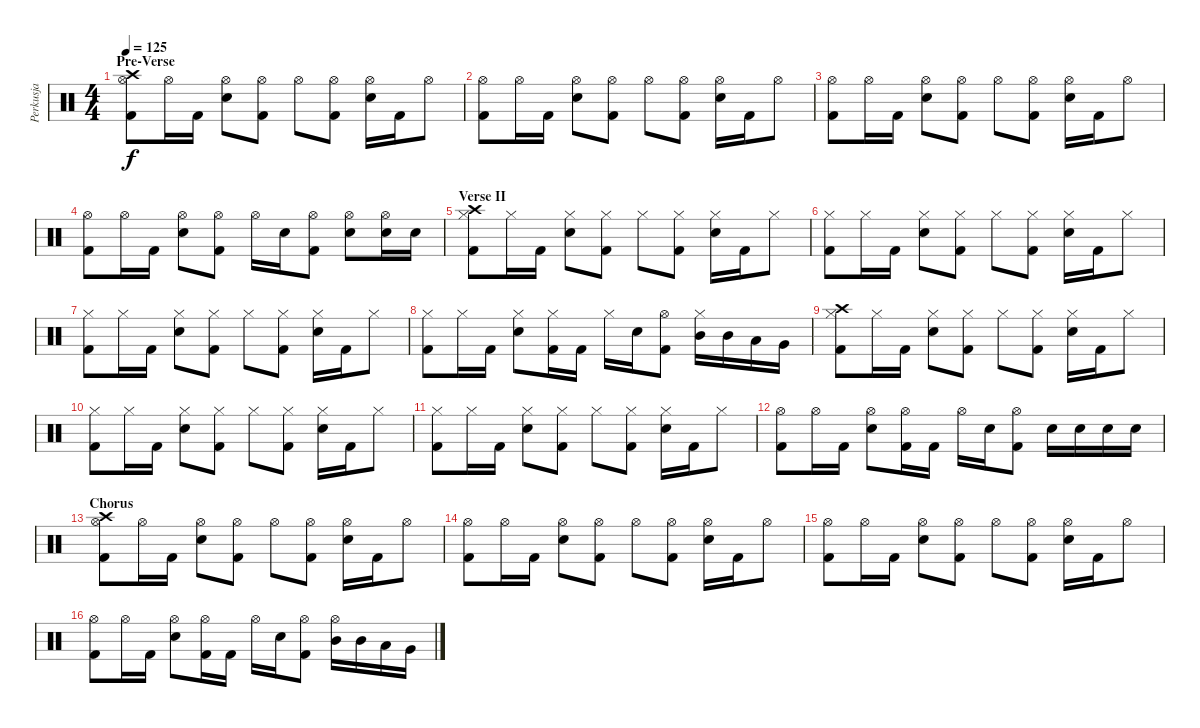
\track ("Perkusja" "Perkusja") {instrument percussion}
\staff {score}
\articulation defaults
\ts (4 4)
\section ("" "Pre-Verse")
\tempo 125
\clef neutral
\ks c
("Hi-Hat (open)" "Kick (hit) 2" "Crash high (hit)").8{dy f} "Hi-Hat (open)".16 "Kick (hit) 2".16 ("Hi-Hat (open)" "Electric Snare (hit)").8 ("Hi-Hat (open)" "Kick (hit) 2").8 "Hi-Hat (open)".8 ("Hi-Hat (open)" "Kick (hit) 2").8 ("Hi-Hat (open)" "Electric Snare (hit)").16 "Kick (hit) 2".16 "Hi-Hat (open)".8 |
("Hi-Hat (open)" "Kick (hit) 2").8 "Hi-Hat (open)".16 "Kick (hit) 2".16 ("Hi-Hat (open)" "Electric Snare (hit)").8 ("Hi-Hat (open)" "Kick (hit) 2").8 "Hi-Hat (open)".8 ("Hi-Hat (open)" "Kick (hit) 2").8 ("Hi-Hat (open)" "Electric Snare (hit)").16 "Kick (hit) 2".16 "Hi-Hat (open)".8 |
("Hi-Hat (open)" "Kick (hit) 2").8 "Hi-Hat (open)".16 "Kick (hit) 2".16 ("Hi-Hat (open)" "Electric Snare (hit)").8 ("Hi-Hat (open)" "Kick (hit) 2").8 "Hi-Hat (open)".8 ("Hi-Hat (open)" "Kick (hit) 2").8 ("Hi-Hat (open)" "Electric Snare (hit)").16 "Kick (hit) 2".16 "Hi-Hat (open)".8 |
("Hi-Hat (open)" "Kick (hit) 2").8 "Hi-Hat (open)".16 "Kick (hit) 2".16 ("Hi-Hat (open)" "Electric Snare (hit)").8 ("Hi-Hat (open)" "Kick (hit) 2").8 "Hi-Hat (open)".16 "Electric Snare (hit)".16 ("Hi-Hat (open)" "Kick (hit) 2").8 ("Hi-Hat (open)" "Electric Snare (hit)").8 ("Hi-Hat (open)" "Electric Snare (hit)").16 "Electric Snare (hit)".16 |
\section ("" "Verse II")
("Hi-Hat (closed)" "Kick (hit) 2" "Crash high (hit)").8 "Hi-Hat (closed)".16 "Kick (hit) 2".16 ("Hi-Hat (closed)" "Electric Snare (hit)").8 ("Hi-Hat (closed)" "Kick (hit) 2").8 "Hi-Hat (closed)".8 ("Hi-Hat (closed)" "Kick (hit) 2").8 ("Hi-Hat (closed)" "Electric Snare (hit)").16 "Kick (hit) 2".16 "Hi-Hat (closed)".8 |
("Hi-Hat (closed)" "Kick (hit) 2").8 "Hi-Hat (closed)".16 "Kick (hit) 2".16 ("Hi-Hat (closed)" "Electric Snare (hit)").8 ("Hi-Hat (closed)" "Kick (hit) 2").8 "Hi-Hat (closed)".8 ("Hi-Hat (closed)" "Kick (hit) 2").8 ("Hi-Hat (closed)" "Electric Snare (hit)").16 "Kick (hit) 2".16 "Hi-Hat (closed)".8 |
("Hi-Hat (closed)" "Kick (hit) 2").8 "Hi-Hat (closed)".16 "Kick (hit) 2".16 ("Hi-Hat (closed)" "Electric Snare (hit)").8 ("Hi-Hat (closed)" "Kick (hit) 2").8 "Hi-Hat (closed)".8 ("Hi-Hat (closed)" "Kick (hit) 2").8 ("Hi-Hat (closed)" "Electric Snare (hit)").16 "Kick (hit) 2".16 "Hi-Hat (closed)".8 |
("Hi-Hat (closed)" "Kick (hit) 2").8 "Hi-Hat (closed)".16 "Kick (hit) 2".16 ("Hi-Hat (closed)" "Electric Snare (hit)").8 ("Hi-Hat (closed)" "Kick (hit) 2").16 "Kick (hit) 2".16 "Hi-Hat (closed)".16 "Electric Snare (hit)".16 ("Hi-Hat (open)" "Kick (hit) 2").8 ("Hi-Hat (closed)" "Mid Tom (hit)").16 "Mid Tom (hit)".16 "Low Tom (hit)".16 "Very Low Tom (hit)".16 |
("Hi-Hat (closed)" "Kick (hit) 2" "Crash high (hit)").8 "Hi-Hat (closed)".16 "Kick (hit) 2".16 ("Hi-Hat (closed)" "Electric Snare (hit)").8 ("Hi-Hat (closed)" "Kick (hit) 2").8 "Hi-Hat (closed)".8 ("Hi-Hat (closed)" "Kick (hit) 2").8 ("Hi-Hat (closed)" "Electric Snare (hit)").16 "Kick (hit) 2".16 "Hi-Hat (closed)".8 |
("Hi-Hat (closed)" "Kick (hit) 2").8 "Hi-Hat (closed)".16 "Kick (hit) 2".16 ("Hi-Hat (closed)" "Electric Snare (hit)").8 ("Hi-Hat (closed)" "Kick (hit) 2").8 "Hi-Hat (closed)".8 ("Hi-Hat (closed)" "Kick (hit) 2").8 ("Hi-Hat (closed)" "Electric Snare (hit)").16 "Kick (hit) 2".16 "Hi-Hat (closed)".8 |
("Hi-Hat (closed)" "Kick (hit) 2").8 "Hi-Hat (closed)".16 "Kick (hit) 2".16 ("Hi-Hat (closed)" "Electric Snare (hit)").8 ("Hi-Hat (closed)" "Kick (hit) 2").8 "Hi-Hat (closed)".8 ("Hi-Hat (closed)" "Kick (hit) 2").8 ("Hi-Hat (closed)" "Electric Snare (hit)").16 "Kick (hit) 2".16 "Hi-Hat (closed)".8 |
("Hi-Hat (open)" "Kick (hit) 2").8 "Hi-Hat (open)".16 "Kick (hit) 2".16 ("Hi-Hat (open)" "Electric Snare (hit)").8 ("Hi-Hat (open)" "Kick (hit) 2").16 "Kick (hit) 2".16 "Hi-Hat (open)".16 "Electric Snare (hit)".16 ("Hi-Hat (open)" "Kick (hit) 2").8 "Electric Snare (hit)".16 "Electric Snare (hit)".16 "Electric Snare (hit)".16 "Electric Snare (hit)".16 |
\section ("" "Chorus")
("Hi-Hat (open)" "Kick (hit) 2" "Crash high (hit)").8 "Hi-Hat (open)".16 "Kick (hit) 2".16 ("Hi-Hat (open)" "Electric Snare (hit)").8 ("Hi-Hat (open)" "Kick (hit) 2").8 "Hi-Hat (open)".8 ("Hi-Hat (open)" "Kick (hit) 2").8 ("Hi-Hat (open)" "Electric Snare (hit)").16 "Kick (hit) 2".16 "Hi-Hat (open)".8 |
("Hi-Hat (open)" "Kick (hit) 2").8 "Hi-Hat (open)".16 "Kick (hit) 2".16 ("Hi-Hat (open)" "Electric Snare (hit)").8 ("Hi-Hat (open)" "Kick (hit) 2").8 "Hi-Hat (open)".8 ("Hi-Hat (open)" "Kick (hit) 2").8 ("Hi-Hat (open)" "Electric Snare (hit)").16 "Kick (hit) 2".16 "Hi-Hat (open)".8 |
("Hi-Hat (open)" "Kick (hit) 2").8 "Hi-Hat (open)".16 "Kick (hit) 2".16 ("Hi-Hat (open)" "Electric Snare (hit)").8 ("Hi-Hat (open)" "Kick (hit) 2").8 "Hi-Hat (open)".8 ("Hi-Hat (open)" "Kick (hit) 2").8 ("Hi-Hat (open)" "Electric Snare (hit)").16 "Kick (hit) 2".16 "Hi-Hat (open)".8 |
("Hi-Hat (open)" "Kick (hit) 2").8 "Hi-Hat (open)".16 "Kick (hit) 2".16 ("Hi-Hat (open)" "Electric Snare (hit)").8 ("Hi-Hat (open)" "Kick (hit) 2").16 "Kick (hit) 2".16 "Hi-Hat (open)".16 "Electric Snare (hit)".16 ("Hi-Hat (open)" "Kick (hit) 2").8 ("Hi-Hat (open)" "Mid Tom (hit)").16 "Mid Tom (hit)".16 "Low Tom (hit)".16 "Very Low Tom (hit)".16
